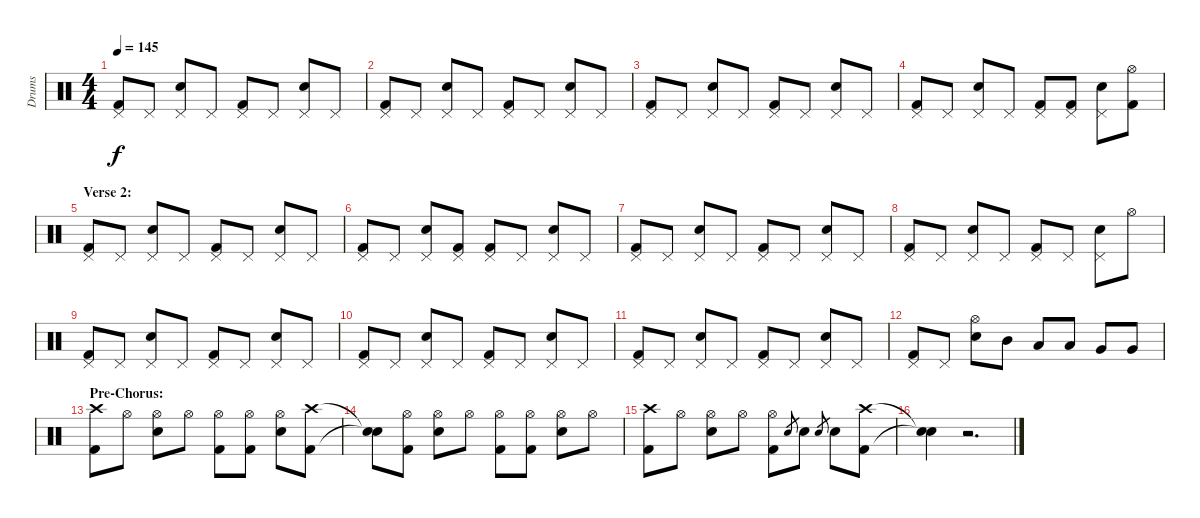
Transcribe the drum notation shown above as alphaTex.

\track ("Drums" "Drums") {instrument percussion}
\staff {score}
\articulation defaults
\ts (4 4)
\tempo 145
\clef neutral
\ks c
("Pedal Hi-Hat (hit)" "Kick (hit) 2").8{dy f} "Pedal Hi-Hat (hit)".8 ("Pedal Hi-Hat (hit)" "Electric Snare (hit)").8 "Pedal Hi-Hat (hit)".8 ("Pedal Hi-Hat (hit)" "Kick (hit) 2").8 "Pedal Hi-Hat (hit)".8 ("Pedal Hi-Hat (hit)" "Electric Snare (hit)").8 "Pedal Hi-Hat (hit)".8 |
("Pedal Hi-Hat (hit)" "Kick (hit) 2").8 "Pedal Hi-Hat (hit)".8 ("Pedal Hi-Hat (hit)" "Electric Snare (hit)").8 "Pedal Hi-Hat (hit)".8 ("Pedal Hi-Hat (hit)" "Kick (hit) 2").8 "Pedal Hi-Hat (hit)".8 ("Pedal Hi-Hat (hit)" "Electric Snare (hit)").8 "Pedal Hi-Hat (hit)".8 |
("Pedal Hi-Hat (hit)" "Kick (hit) 2").8 "Pedal Hi-Hat (hit)".8 ("Pedal Hi-Hat (hit)" "Electric Snare (hit)").8 "Pedal Hi-Hat (hit)".8 ("Pedal Hi-Hat (hit)" "Kick (hit) 2").8 "Pedal Hi-Hat (hit)".8 ("Pedal Hi-Hat (hit)" "Electric Snare (hit)").8 "Pedal Hi-Hat (hit)".8 |
("Pedal Hi-Hat (hit)" "Kick (hit) 2").8 "Pedal Hi-Hat (hit)".8 ("Pedal Hi-Hat (hit)" "Electric Snare (hit)").8 "Pedal Hi-Hat (hit)".8 ("Pedal Hi-Hat (hit)" "Kick (hit) 2").8 ("Pedal Hi-Hat (hit)" "Kick (hit) 2").8 ("Pedal Hi-Hat (hit)" "Electric Snare (hit)").8 ("Hi-Hat (open)" "Kick (hit) 2").8 |
\section ("" "Verse 2:")
("Pedal Hi-Hat (hit)" "Kick (hit) 2").8 "Pedal Hi-Hat (hit)".8 ("Pedal Hi-Hat (hit)" "Electric Snare (hit)").8 "Pedal Hi-Hat (hit)".8 ("Pedal Hi-Hat (hit)" "Kick (hit) 2").8 "Pedal Hi-Hat (hit)".8 ("Pedal Hi-Hat (hit)" "Electric Snare (hit)").8 "Pedal Hi-Hat (hit)".8 |
("Pedal Hi-Hat (hit)" "Kick (hit) 2").8 "Pedal Hi-Hat (hit)".8 ("Pedal Hi-Hat (hit)" "Electric Snare (hit)").8 ("Pedal Hi-Hat (hit)" "Kick (hit) 2").8 ("Pedal Hi-Hat (hit)" "Kick (hit) 2").8 "Pedal Hi-Hat (hit)".8 ("Pedal Hi-Hat (hit)" "Electric Snare (hit)").8 "Pedal Hi-Hat (hit)".8 |
("Pedal Hi-Hat (hit)" "Kick (hit) 2").8 "Pedal Hi-Hat (hit)".8 ("Pedal Hi-Hat (hit)" "Electric Snare (hit)").8 "Pedal Hi-Hat (hit)".8 ("Pedal Hi-Hat (hit)" "Kick (hit) 2").8 "Pedal Hi-Hat (hit)".8 ("Pedal Hi-Hat (hit)" "Electric Snare (hit)").8 "Pedal Hi-Hat (hit)".8 |
("Pedal Hi-Hat (hit)" "Kick (hit) 2").8 "Pedal Hi-Hat (hit)".8 ("Pedal Hi-Hat (hit)" "Electric Snare (hit)").8 "Pedal Hi-Hat (hit)".8 ("Pedal Hi-Hat (hit)" "Kick (hit) 2").8 "Pedal Hi-Hat (hit)".8 ("Pedal Hi-Hat (hit)" "Electric Snare (hit)").8 "Hi-Hat (open)".8 |
("Pedal Hi-Hat (hit)" "Kick (hit) 2").8 "Pedal Hi-Hat (hit)".8 ("Pedal Hi-Hat (hit)" "Electric Snare (hit)").8 "Pedal Hi-Hat (hit)".8 ("Pedal Hi-Hat (hit)" "Kick (hit) 2").8 "Pedal Hi-Hat (hit)".8 ("Pedal Hi-Hat (hit)" "Electric Snare (hit)").8 "Pedal Hi-Hat (hit)".8 |
("Pedal Hi-Hat (hit)" "Kick (hit) 2").8 "Pedal Hi-Hat (hit)".8 ("Pedal Hi-Hat (hit)" "Electric Snare (hit)").8 "Pedal Hi-Hat (hit)".8 ("Pedal Hi-Hat (hit)" "Kick (hit) 2").8 "Pedal Hi-Hat (hit)".8 ("Pedal Hi-Hat (hit)" "Electric Snare (hit)").8 "Pedal Hi-Hat (hit)".8 |
("Pedal Hi-Hat (hit)" "Kick (hit) 2").8 "Pedal Hi-Hat (hit)".8 ("Pedal Hi-Hat (hit)" "Electric Snare (hit)").8 "Pedal Hi-Hat (hit)".8 ("Pedal Hi-Hat (hit)" "Kick (hit) 2").8 "Pedal Hi-Hat (hit)".8 ("Pedal Hi-Hat (hit)" "Electric Snare (hit)").8 "Pedal Hi-Hat (hit)".8 |
("Pedal Hi-Hat (hit)" "Kick (hit) 2").8 "Pedal Hi-Hat (hit)".8 ("Hi-Hat (open)" "Electric Snare (hit)").8 "Mid Tom (hit)".8 "Low Tom (hit)".8 "Low Tom (hit)".8 "Very Low Tom (hit)".8 "Very Low Tom (hit)".8 |
\section ("" "Pre-Chorus:")
("Crash high (hit)" "Kick (hit) 2").8 "Hi-Hat (open)".8 ("Hi-Hat (open)" "Electric Snare (hit)").8 "Hi-Hat (open)".8 ("Hi-Hat (open)" "Kick (hit) 2").8 ("Hi-Hat (open)" "Kick (hit) 2").8 ("Hi-Hat (open)" "Electric Snare (hit)").8 ("Crash high (hit)" "Kick (hit) 2").8 |
("Snare (hit)"{t} "Snare (hit)"{t}).8 ("Hi-Hat (open)" "Kick (hit) 2").8 ("Hi-Hat (open)" "Electric Snare (hit)").8 "Hi-Hat (open)".8 ("Hi-Hat (open)" "Kick (hit) 2").8 ("Hi-Hat (open)" "Kick (hit) 2").8 ("Hi-Hat (open)" "Electric Snare (hit)").8 "Hi-Hat (open)".8 |
("Crash high (hit)" "Kick (hit) 2").8 "Hi-Hat (open)".8 ("Hi-Hat (open)" "Electric Snare (hit)").8 "Hi-Hat (open)".8 ("Hi-Hat (open)" "Kick (hit) 2").8 "Electric Snare (hit)".8{gr} "Electric Snare (hit)".8 "Electric Snare (hit)".8{gr} "Electric Snare (hit)".8 ("Crash high (hit)" "Kick (hit) 2").8 |
("Snare (hit)"{t} "Snare (hit)"{t}).4 r.2{d}
